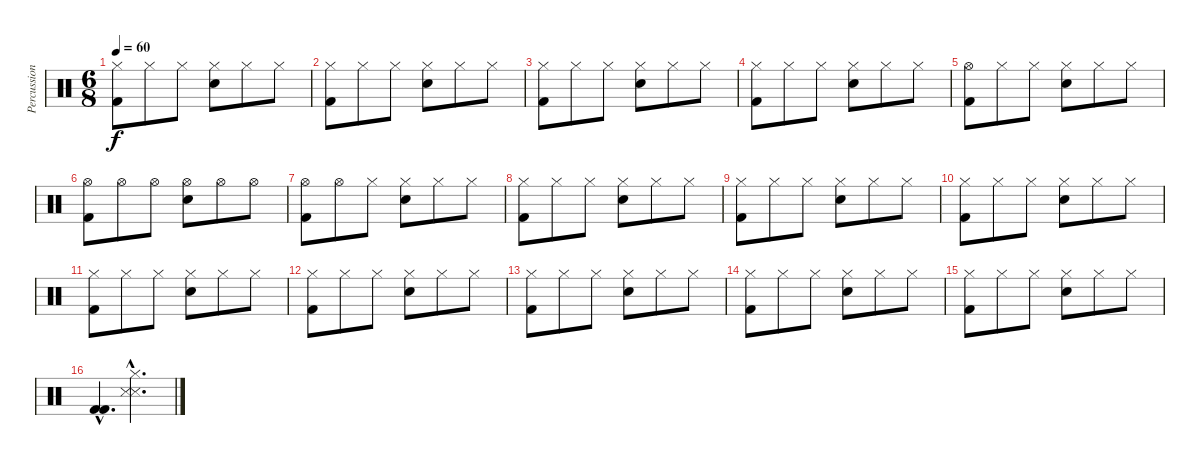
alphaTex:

\track ("Percussion" "Percussion") {instrument percussion}
\staff {score}
\articulation defaults
\ts (6 8)
\tempo 60
\clef neutral
\ks c
("Hi-Hat (closed)" "Kick (hit) 2").8{dy f} "Hi-Hat (closed)".8 "Hi-Hat (closed)".8 ("Hi-Hat (closed)" "Electric Snare (hit)").8 "Hi-Hat (closed)".8 "Hi-Hat (closed)".8 |
("Hi-Hat (closed)" "Kick (hit) 2").8 "Hi-Hat (closed)".8 "Hi-Hat (closed)".8 ("Hi-Hat (closed)" "Electric Snare (hit)").8 "Hi-Hat (closed)".8 "Hi-Hat (closed)".8 |
("Hi-Hat (closed)" "Kick (hit) 2").8 "Hi-Hat (closed)".8 "Hi-Hat (closed)".8 ("Hi-Hat (closed)" "Electric Snare (hit)").8 "Hi-Hat (closed)".8 "Hi-Hat (closed)".8 |
("Hi-Hat (closed)" "Kick (hit) 2").8 "Hi-Hat (closed)".8 "Hi-Hat (closed)".8 ("Hi-Hat (closed)" "Electric Snare (hit)").8 "Hi-Hat (closed)".8 "Hi-Hat (closed)".8 |
("Hi-Hat (open)" "Kick (hit) 2").8 "Hi-Hat (closed)".8 "Hi-Hat (closed)".8 ("Hi-Hat (closed)" "Electric Snare (hit)").8 "Hi-Hat (closed)".8 "Hi-Hat (closed)".8 |
("Hi-Hat (open)" "Kick (hit) 2").8 "Hi-Hat (open)".8 "Hi-Hat (open)".8 ("Hi-Hat (open)" "Electric Snare (hit)").8 "Hi-Hat (open)".8 "Hi-Hat (open)".8 |
("Hi-Hat (open)" "Kick (hit) 2").8 "Hi-Hat (open)".8 "Hi-Hat (closed)".8 ("Hi-Hat (closed)" "Electric Snare (hit)").8 "Hi-Hat (closed)".8 "Hi-Hat (closed)".8 |
("Hi-Hat (closed)" "Kick (hit) 2").8 "Hi-Hat (closed)".8 "Hi-Hat (closed)".8 ("Hi-Hat (closed)" "Electric Snare (hit)").8 "Hi-Hat (closed)".8 "Hi-Hat (closed)".8 |
("Hi-Hat (closed)" "Kick (hit) 2").8 "Hi-Hat (closed)".8 "Hi-Hat (closed)".8 ("Hi-Hat (closed)" "Electric Snare (hit)").8 "Hi-Hat (closed)".8 "Hi-Hat (closed)".8 |
("Hi-Hat (closed)" "Kick (hit) 2").8 "Hi-Hat (closed)".8 "Hi-Hat (closed)".8 ("Hi-Hat (closed)" "Electric Snare (hit)").8 "Hi-Hat (closed)".8 "Hi-Hat (closed)".8 |
("Hi-Hat (closed)" "Kick (hit) 2").8 "Hi-Hat (closed)".8 "Hi-Hat (closed)".8 ("Hi-Hat (closed)" "Electric Snare (hit)").8 "Hi-Hat (closed)".8 "Hi-Hat (closed)".8 |
("Hi-Hat (closed)" "Kick (hit) 2").8 "Hi-Hat (closed)".8 "Hi-Hat (closed)".8 ("Hi-Hat (closed)" "Electric Snare (hit)").8 "Hi-Hat (closed)".8 "Hi-Hat (closed)".8 |
("Hi-Hat (closed)" "Kick (hit) 2").8 "Hi-Hat (closed)".8 "Hi-Hat (closed)".8 ("Hi-Hat (closed)" "Electric Snare (hit)").8 "Hi-Hat (closed)".8 "Hi-Hat (closed)".8 |
("Hi-Hat (closed)" "Kick (hit) 2").8 "Hi-Hat (closed)".8 "Hi-Hat (closed)".8 ("Hi-Hat (closed)" "Electric Snare (hit)").8 "Hi-Hat (closed)".8 "Hi-Hat (closed)".8 |
("Hi-Hat (closed)" "Kick (hit) 2").8 "Hi-Hat (closed)".8 "Hi-Hat (closed)".8 ("Hi-Hat (closed)" "Electric Snare (hit)").8 "Hi-Hat (closed)".8 "Hi-Hat (closed)".8 |
("Kick (hit) 2"{hac} "Kick (hit) 2"{hac}).4{d} ("Hi-Hat (closed)"{hac} "Snare (side stick) 3"{hac} "Snare (side stick) 3"{hac}).4{d}
